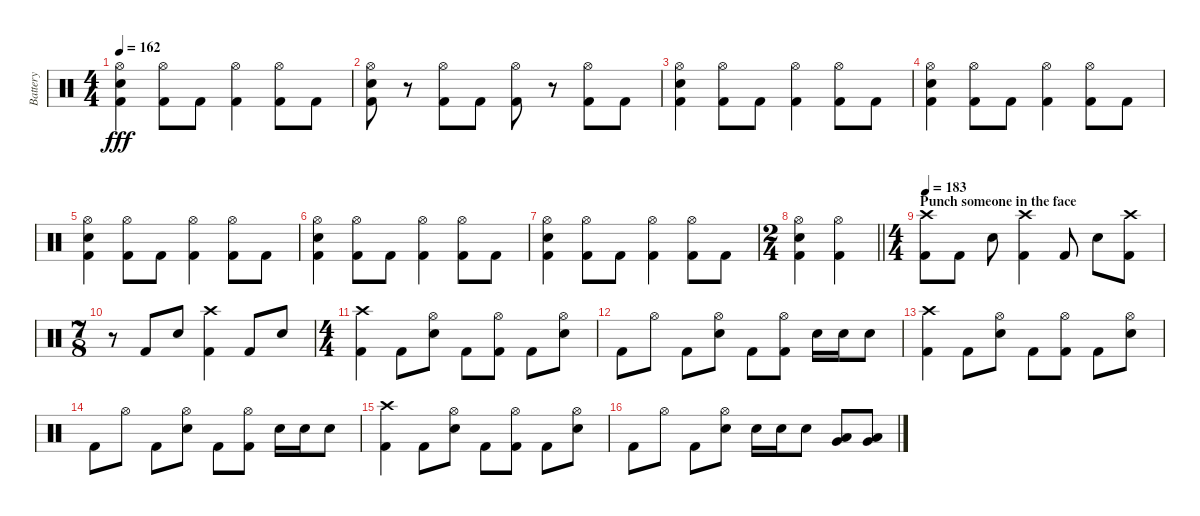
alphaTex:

\track ("Battery" "Battery") {instrument percussion}
\staff {score}
\articulation defaults
\ts (4 4)
\tempo 162
\clef neutral
\ks c
("Hi-Hat (open)" "Electric Snare (hit)" "Kick (hit) 2").4{dy fff} ("Hi-Hat (open)" "Kick (hit) 2").8 "Kick (hit) 2".8 ("Hi-Hat (open)" "Kick (hit) 2").4 ("Hi-Hat (open)" "Kick (hit) 2").8 "Kick (hit) 2".8 |
("Hi-Hat (open)" "Electric Snare (hit)" "Kick (hit) 2").8 r.8 ("Hi-Hat (open)" "Kick (hit) 2").8 "Kick (hit) 2".8 ("Hi-Hat (open)" "Kick (hit) 2").8 r.8 ("Hi-Hat (open)" "Kick (hit) 2").8 "Kick (hit) 2".8 |
("Hi-Hat (open)" "Electric Snare (hit)" "Kick (hit) 2").4 ("Hi-Hat (open)" "Kick (hit) 2").8 "Kick (hit) 2".8 ("Hi-Hat (open)" "Kick (hit) 2").4 ("Hi-Hat (open)" "Kick (hit) 2").8 "Kick (hit) 2".8 |
("Hi-Hat (open)" "Electric Snare (hit)" "Kick (hit) 2").4 ("Hi-Hat (open)" "Kick (hit) 2").8 "Kick (hit) 2".8 ("Hi-Hat (open)" "Kick (hit) 2").4 ("Hi-Hat (open)" "Kick (hit) 2").8 "Kick (hit) 2".8 |
("Hi-Hat (open)" "Electric Snare (hit)" "Kick (hit) 2").4 ("Hi-Hat (open)" "Kick (hit) 2").8 "Kick (hit) 2".8 ("Hi-Hat (open)" "Kick (hit) 2").4 ("Hi-Hat (open)" "Kick (hit) 2").8 "Kick (hit) 2".8 |
("Hi-Hat (open)" "Electric Snare (hit)" "Kick (hit) 2").4 ("Hi-Hat (open)" "Kick (hit) 2").8 "Kick (hit) 2".8 ("Hi-Hat (open)" "Kick (hit) 2").4 ("Hi-Hat (open)" "Kick (hit) 2").8 "Kick (hit) 2".8 |
("Hi-Hat (open)" "Electric Snare (hit)" "Kick (hit) 2").4 ("Hi-Hat (open)" "Kick (hit) 2").8 "Kick (hit) 2".8 ("Hi-Hat (open)" "Kick (hit) 2").4 ("Hi-Hat (open)" "Kick (hit) 2").8 "Kick (hit) 2".8 |
\ts (2 4)
\barLineRight lightlight
("Hi-Hat (open)" "Electric Snare (hit)" "Kick (hit) 2").4 ("Hi-Hat (open)" "Kick (hit) 2").4 |
\ts (4 4)
\section ("" "Punch someone in the face")
\tempo 183
("Crash high (hit)" "Kick (hit) 2").8 "Kick (hit) 2".8 "Electric Snare (hit)".8 ("Crash high (hit)" "Kick (hit) 2").4 "Kick (hit) 2".8 "Electric Snare (hit)".8 ("Crash high (hit)" "Kick (hit) 2").8 |
\ts (7 8)
r.8 "Kick (hit) 2".8 "Electric Snare (hit)".8 ("Crash high (hit)" "Kick (hit) 2").4 "Kick (hit) 2".8 "Electric Snare (hit)".8 |
\ts (4 4)
("Crash high (hit)" "Kick (hit) 2").4 "Kick (hit) 2".8 ("Hi-Hat (open)" "Electric Snare (hit)").8 "Kick (hit) 2".8 ("Hi-Hat (open)" "Kick (hit) 2").8 "Kick (hit) 2".8 ("Hi-Hat (open)" "Electric Snare (hit)").8 |
"Kick (hit) 2".8 "Hi-Hat (open)".8 "Kick (hit) 2".8 ("Hi-Hat (open)" "Electric Snare (hit)").8 "Kick (hit) 2".8 ("Hi-Hat (open)" "Kick (hit) 2").8 "Electric Snare (hit)".16 "Electric Snare (hit)".16 "Electric Snare (hit)".8 |
("Crash high (hit)" "Kick (hit) 2").4 "Kick (hit) 2".8 ("Hi-Hat (open)" "Electric Snare (hit)").8 "Kick (hit) 2".8 ("Hi-Hat (open)" "Kick (hit) 2").8 "Kick (hit) 2".8 ("Hi-Hat (open)" "Electric Snare (hit)").8 |
"Kick (hit) 2".8 "Hi-Hat (open)".8 "Kick (hit) 2".8 ("Hi-Hat (open)" "Electric Snare (hit)").8 "Kick (hit) 2".8 ("Hi-Hat (open)" "Kick (hit) 2").8 "Electric Snare (hit)".16 "Electric Snare (hit)".16 "Electric Snare (hit)".8 |
("Crash high (hit)" "Kick (hit) 2").4 "Kick (hit) 2".8 ("Hi-Hat (open)" "Electric Snare (hit)").8 "Kick (hit) 2".8 ("Hi-Hat (open)" "Kick (hit) 2").8 "Kick (hit) 2".8 ("Hi-Hat (open)" "Electric Snare (hit)").8 |
"Kick (hit) 2".8 "Hi-Hat (open)".8 "Kick (hit) 2".8 ("Hi-Hat (open)" "Electric Snare (hit)").8 "Electric Snare (hit)".16 "Electric Snare (hit)".16 "Electric Snare (hit)".8 ("Low Tom (hit)" "Very Low Tom (hit)").8 ("Very Low Tom (hit)" "Low Floor Tom (hit)").8
